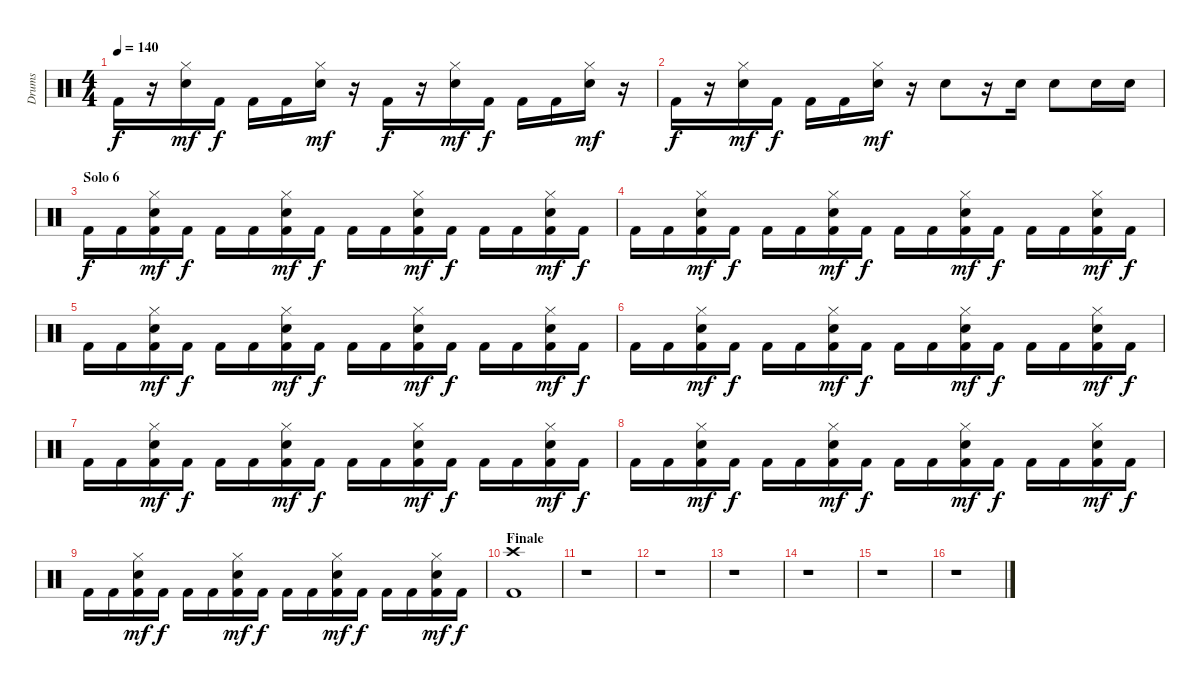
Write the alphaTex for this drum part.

\track ("Drums" "Drums") {instrument percussion}
\staff {score}
\articulation defaults
\ts (4 4)
\tempo 140
\clef neutral
\ks c "Kick (hit) 2".16{dy f}
r.16 ("Snare (hit) 2" "Hi-Hat (closed)").16{dy mf} "Kick (hit) 2".16{dy f} "Kick (hit) 2".16 "Kick (hit) 2".16 ("Snare (hit) 2" "Hi-Hat (closed)").16{dy mf} r.16 "Kick (hit) 2".16{dy f} r.16 ("Snare (hit) 2" "Hi-Hat (closed)").16{dy mf} "Kick (hit) 2".16{dy f} "Kick (hit) 2".16 "Kick (hit) 2".16 ("Snare (hit) 2" "Hi-Hat (closed)").16{dy mf} r.16 |
"Kick (hit) 2".16{dy f} r.16 ("Snare (hit) 2" "Hi-Hat (closed)").16{dy mf} "Kick (hit) 2".16{dy f} "Kick (hit) 2".16 "Kick (hit) 2".16 ("Snare (hit) 2" "Hi-Hat (closed)").16{dy mf} r.16 "Snare (hit) 2".8 r.16 "Snare (hit) 2".16 "Snare (hit) 2".8 "Snare (hit) 2".16 "Snare (hit) 2".16 |
\section ("" "Solo 6")
"Kick (hit) 2".16{dy f} "Kick (hit) 2".16 ("Kick (hit) 2" "Snare (hit) 2" "Hi-Hat (closed)").16{dy mf} "Kick (hit) 2".16{dy f} "Kick (hit) 2".16 "Kick (hit) 2".16 ("Kick (hit) 2" "Snare (hit) 2" "Hi-Hat (closed)").16{dy mf} "Kick (hit) 2".16{dy f} "Kick (hit) 2".16 "Kick (hit) 2".16 ("Kick (hit) 2" "Snare (hit) 2" "Hi-Hat (closed)").16{dy mf} "Kick (hit) 2".16{dy f} "Kick (hit) 2".16 "Kick (hit) 2".16 ("Kick (hit) 2" "Snare (hit) 2" "Hi-Hat (closed)").16{dy mf} "Kick (hit) 2".16{dy f} |
"Kick (hit) 2".16 "Kick (hit) 2".16 ("Kick (hit) 2" "Snare (hit) 2" "Hi-Hat (closed)").16{dy mf} "Kick (hit) 2".16{dy f} "Kick (hit) 2".16 "Kick (hit) 2".16 ("Kick (hit) 2" "Snare (hit) 2" "Hi-Hat (closed)").16{dy mf} "Kick (hit) 2".16{dy f} "Kick (hit) 2".16 "Kick (hit) 2".16 ("Kick (hit) 2" "Snare (hit) 2" "Hi-Hat (closed)").16{dy mf} "Kick (hit) 2".16{dy f} "Kick (hit) 2".16 "Kick (hit) 2".16 ("Kick (hit) 2" "Snare (hit) 2" "Hi-Hat (closed)").16{dy mf} "Kick (hit) 2".16{dy f} |
"Kick (hit) 2".16 "Kick (hit) 2".16 ("Kick (hit) 2" "Snare (hit) 2" "Hi-Hat (closed)").16{dy mf} "Kick (hit) 2".16{dy f} "Kick (hit) 2".16 "Kick (hit) 2".16 ("Kick (hit) 2" "Snare (hit) 2" "Hi-Hat (closed)").16{dy mf} "Kick (hit) 2".16{dy f} "Kick (hit) 2".16 "Kick (hit) 2".16 ("Kick (hit) 2" "Snare (hit) 2" "Hi-Hat (closed)").16{dy mf} "Kick (hit) 2".16{dy f} "Kick (hit) 2".16 "Kick (hit) 2".16 ("Kick (hit) 2" "Snare (hit) 2" "Hi-Hat (closed)").16{dy mf} "Kick (hit) 2".16{dy f} |
"Kick (hit) 2".16 "Kick (hit) 2".16 ("Kick (hit) 2" "Snare (hit) 2" "Hi-Hat (closed)").16{dy mf} "Kick (hit) 2".16{dy f} "Kick (hit) 2".16 "Kick (hit) 2".16 ("Kick (hit) 2" "Snare (hit) 2" "Hi-Hat (closed)").16{dy mf} "Kick (hit) 2".16{dy f} "Kick (hit) 2".16 "Kick (hit) 2".16 ("Kick (hit) 2" "Snare (hit) 2" "Hi-Hat (closed)").16{dy mf} "Kick (hit) 2".16{dy f} "Kick (hit) 2".16 "Kick (hit) 2".16 ("Kick (hit) 2" "Snare (hit) 2" "Hi-Hat (closed)").16{dy mf} "Kick (hit) 2".16{dy f} |
"Kick (hit) 2".16 "Kick (hit) 2".16 ("Kick (hit) 2" "Snare (hit) 2" "Hi-Hat (closed)").16{dy mf} "Kick (hit) 2".16{dy f} "Kick (hit) 2".16 "Kick (hit) 2".16 ("Kick (hit) 2" "Snare (hit) 2" "Hi-Hat (closed)").16{dy mf} "Kick (hit) 2".16{dy f} "Kick (hit) 2".16 "Kick (hit) 2".16 ("Kick (hit) 2" "Snare (hit) 2" "Hi-Hat (closed)").16{dy mf} "Kick (hit) 2".16{dy f} "Kick (hit) 2".16 "Kick (hit) 2".16 ("Kick (hit) 2" "Snare (hit) 2" "Hi-Hat (closed)").16{dy mf} "Kick (hit) 2".16{dy f} |
"Kick (hit) 2".16 "Kick (hit) 2".16 ("Kick (hit) 2" "Snare (hit) 2" "Hi-Hat (closed)").16{dy mf} "Kick (hit) 2".16{dy f} "Kick (hit) 2".16 "Kick (hit) 2".16 ("Kick (hit) 2" "Snare (hit) 2" "Hi-Hat (closed)").16{dy mf} "Kick (hit) 2".16{dy f} "Kick (hit) 2".16 "Kick (hit) 2".16 ("Kick (hit) 2" "Snare (hit) 2" "Hi-Hat (closed)").16{dy mf} "Kick (hit) 2".16{dy f} "Kick (hit) 2".16 "Kick (hit) 2".16 ("Kick (hit) 2" "Snare (hit) 2" "Hi-Hat (closed)").16{dy mf} "Kick (hit) 2".16{dy f} |
"Kick (hit) 2".16 "Kick (hit) 2".16 ("Kick (hit) 2" "Snare (hit) 2" "Hi-Hat (closed)").16{dy mf} "Kick (hit) 2".16{dy f} "Kick (hit) 2".16 "Kick (hit) 2".16 ("Kick (hit) 2" "Snare (hit) 2" "Hi-Hat (closed)").16{dy mf} "Kick (hit) 2".16{dy f} "Kick (hit) 2".16 "Kick (hit) 2".16 ("Kick (hit) 2" "Snare (hit) 2" "Hi-Hat (closed)").16{dy mf} "Kick (hit) 2".16{dy f} "Kick (hit) 2".16 "Kick (hit) 2".16 ("Kick (hit) 2" "Snare (hit) 2" "Hi-Hat (closed)").16{dy mf} "Kick (hit) 2".16{dy f} |
\section ("" "Finale")
("Kick (hit) 2" "Crash high (hit)").1 |
r.1 |
r.1 |
r.1 |
r.1 |
r.1 |
r.1
